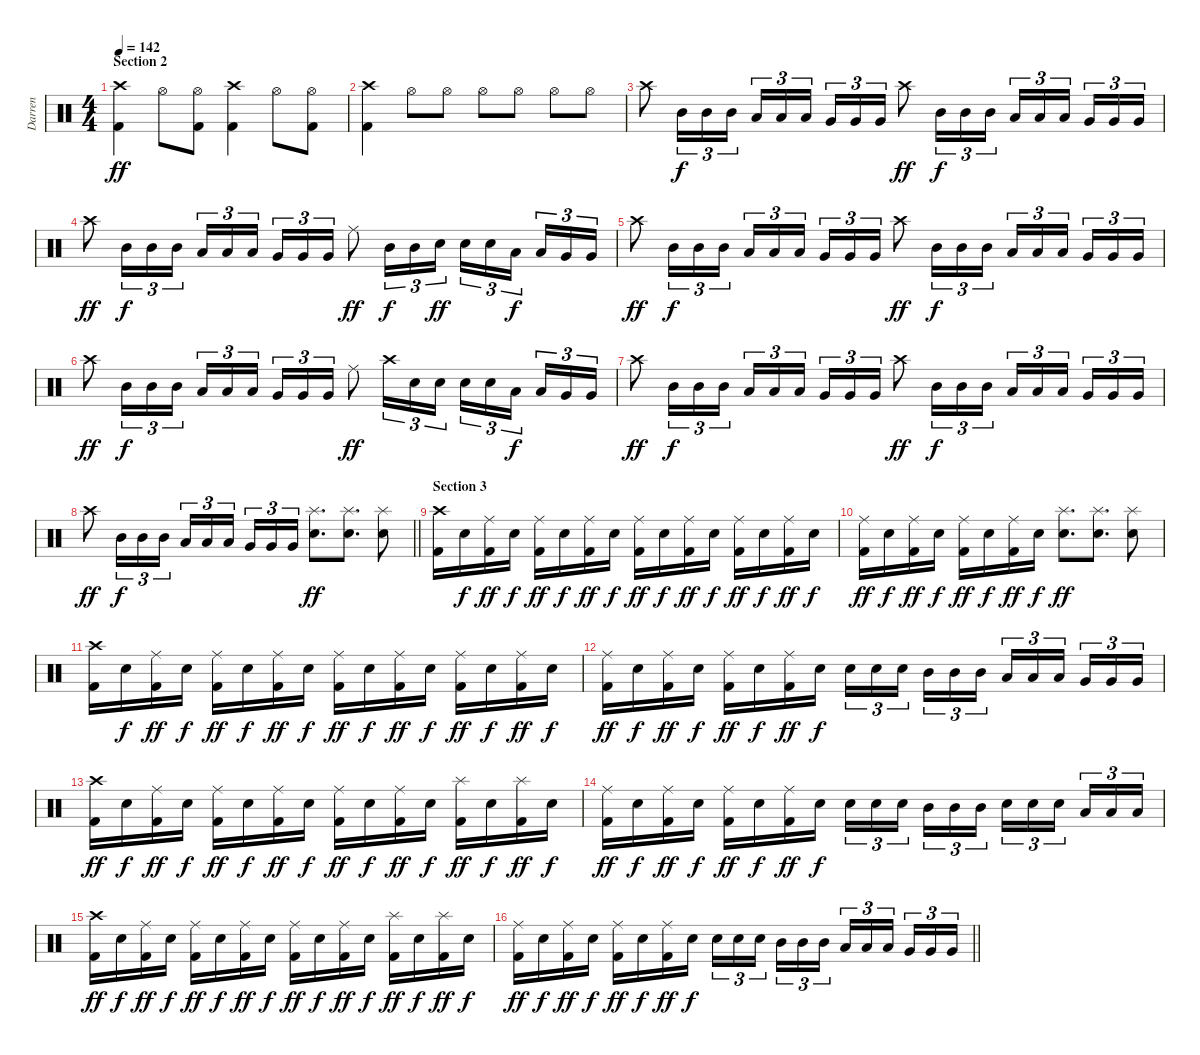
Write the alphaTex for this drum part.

\track ("Darren" "Darren") {instrument percussion}
\staff {score}
\articulation defaults
\ts (4 4)
\section ("" "Section 2")
\tempo 142
\clef neutral
\ks c
("Crash high (hit)" "Kick (hit) 2").4{dy ff} "Hi-Hat (open)".8 ("Hi-Hat (open)" "Kick (hit) 2").8 ("Crash high (hit)" "Kick (hit) 2").4 "Hi-Hat (open)".8 ("Hi-Hat (open)" "Kick (hit) 2").8 |
("Crash high (hit)" "Kick (hit) 2").4 "Hi-Hat (open)".8 "Hi-Hat (open)".8 "Hi-Hat (open)".8 "Hi-Hat (open)".8 "Hi-Hat (open)".8 "Hi-Hat (open)".8 |
"Crash high (hit)".8 "Mid Tom (hit)".16{tu (3 2) dy f} "Mid Tom (hit)".16{tu (3 2)} "Mid Tom (hit)".16{tu (3 2)} "Low Tom (hit)".16{tu (3 2)} "Low Tom (hit)".16{tu (3 2)} "Low Tom (hit)".16{tu (3 2) beam splitsecondary} "Very Low Tom (hit)".16{tu (3 2)} "Very Low Tom (hit)".16{tu (3 2)} "Very Low Tom (hit)".16{tu (3 2)} "Crash high (hit)".8{dy ff} "Mid Tom (hit)".16{tu (3 2) dy f} "Mid Tom (hit)".16{tu (3 2)} "Mid Tom (hit)".16{tu (3 2)} "Low Tom (hit)".16{tu (3 2)} "Low Tom (hit)".16{tu (3 2)} "Low Tom (hit)".16{tu (3 2) beam splitsecondary} "Very Low Tom (hit)".16{tu (3 2)} "Very Low Tom (hit)".16{tu (3 2)} "Very Low Tom (hit)".16{tu (3 2)} |
"Crash high (hit)".8{dy ff} "Mid Tom (hit)".16{tu (3 2) dy f} "Mid Tom (hit)".16{tu (3 2)} "Mid Tom (hit)".16{tu (3 2)} "Low Tom (hit)".16{tu (3 2)} "Low Tom (hit)".16{tu (3 2)} "Low Tom (hit)".16{tu (3 2) beam splitsecondary} "Very Low Tom (hit)".16{tu (3 2)} "Very Low Tom (hit)".16{tu (3 2)} "Very Low Tom (hit)".16{tu (3 2)} "Ride (middle)".8{dy ff} "Mid Tom (hit)".16{tu (3 2) dy f} "Mid Tom (hit)".16{tu (3 2)} "Electric Snare (hit)".16{tu (3 2) dy ff} "Electric Snare (hit)".16{tu (3 2)} "Electric Snare (hit)".16{tu (3 2)} "Low Tom (hit)".16{tu (3 2) dy f beam splitsecondary} "Low Tom (hit)".16{tu (3 2)} "Very Low Tom (hit)".16{tu (3 2)} "Very Low Tom (hit)".16{tu (3 2)} |
"Crash high (hit)".8{dy ff} "Mid Tom (hit)".16{tu (3 2) dy f} "Mid Tom (hit)".16{tu (3 2)} "Mid Tom (hit)".16{tu (3 2)} "Low Tom (hit)".16{tu (3 2)} "Low Tom (hit)".16{tu (3 2)} "Low Tom (hit)".16{tu (3 2) beam splitsecondary} "Very Low Tom (hit)".16{tu (3 2)} "Very Low Tom (hit)".16{tu (3 2)} "Very Low Tom (hit)".16{tu (3 2)} "Crash high (hit)".8{dy ff} "Mid Tom (hit)".16{tu (3 2) dy f} "Mid Tom (hit)".16{tu (3 2)} "Mid Tom (hit)".16{tu (3 2)} "Low Tom (hit)".16{tu (3 2)} "Low Tom (hit)".16{tu (3 2)} "Low Tom (hit)".16{tu (3 2) beam splitsecondary} "Very Low Tom (hit)".16{tu (3 2)} "Very Low Tom (hit)".16{tu (3 2)} "Very Low Tom (hit)".16{tu (3 2)} |
"Crash high (hit)".8{dy ff} "Mid Tom (hit)".16{tu (3 2) dy f} "Mid Tom (hit)".16{tu (3 2)} "Mid Tom (hit)".16{tu (3 2)} "Low Tom (hit)".16{tu (3 2)} "Low Tom (hit)".16{tu (3 2)} "Low Tom (hit)".16{tu (3 2) beam splitsecondary} "Very Low Tom (hit)".16{tu (3 2)} "Very Low Tom (hit)".16{tu (3 2)} "Very Low Tom (hit)".16{tu (3 2)} "Ride (middle)".8{dy ff} "Crash high (hit)".16{tu (3 2)} "Electric Snare (hit)".16{tu (3 2)} "Electric Snare (hit)".16{tu (3 2)} "Electric Snare (hit)".16{tu (3 2)} "Electric Snare (hit)".16{tu (3 2)} "Low Tom (hit)".16{tu (3 2) dy f beam splitsecondary} "Low Tom (hit)".16{tu (3 2)} "Very Low Tom (hit)".16{tu (3 2)} "Very Low Tom (hit)".16{tu (3 2)} |
"Crash high (hit)".8{dy ff} "Mid Tom (hit)".16{tu (3 2) dy f} "Mid Tom (hit)".16{tu (3 2)} "Mid Tom (hit)".16{tu (3 2)} "Low Tom (hit)".16{tu (3 2)} "Low Tom (hit)".16{tu (3 2)} "Low Tom (hit)".16{tu (3 2) beam splitsecondary} "Very Low Tom (hit)".16{tu (3 2)} "Very Low Tom (hit)".16{tu (3 2)} "Very Low Tom (hit)".16{tu (3 2)} "Crash high (hit)".8{dy ff} "Mid Tom (hit)".16{tu (3 2) dy f} "Mid Tom (hit)".16{tu (3 2)} "Mid Tom (hit)".16{tu (3 2)} "Low Tom (hit)".16{tu (3 2)} "Low Tom (hit)".16{tu (3 2)} "Low Tom (hit)".16{tu (3 2) beam splitsecondary} "Very Low Tom (hit)".16{tu (3 2)} "Very Low Tom (hit)".16{tu (3 2)} "Very Low Tom (hit)".16{tu (3 2)} |
\barLineRight lightlight "Crash high (hit)".8{dy ff} "Mid Tom (hit)".16{tu (3 2) dy f} "Mid Tom (hit)".16{tu (3 2)} "Mid Tom (hit)".16{tu (3 2)} "Low Tom (hit)".16{tu (3 2)} "Low Tom (hit)".16{tu (3 2)} "Low Tom (hit)".16{tu (3 2) beam splitsecondary} "Very Low Tom (hit)".16{tu (3 2)} "Very Low Tom (hit)".16{tu (3 2)} "Very Low Tom (hit)".16{tu (3 2)}
("Splash (hit)" "Electric Snare (hit)").8{d dy ff} ("Splash (hit)" "Electric Snare (hit)").8{d} ("Splash (hit)" "Electric Snare (hit)").8 |
\section ("" "Section 3")
("Crash high (hit)" "Kick (hit) 2").16 "Electric Snare (hit)".16{dy f} ("Ride (middle)" "Kick (hit) 2").16{dy ff} "Electric Snare (hit)".16{dy f} ("Ride (middle)" "Kick (hit) 2").16{dy ff} "Electric Snare (hit)".16{dy f} ("Ride (middle)" "Kick (hit) 2").16{dy ff} "Electric Snare (hit)".16{dy f} ("Ride (middle)" "Kick (hit) 2").16{dy ff} "Electric Snare (hit)".16{dy f} ("Ride (middle)" "Kick (hit) 2").16{dy ff} "Electric Snare (hit)".16{dy f} ("Ride (middle)" "Kick (hit) 2").16{dy ff} "Electric Snare (hit)".16{dy f} ("Ride (middle)" "Kick (hit) 2").16{dy ff} "Electric Snare (hit)".16{dy f} |
("Ride (middle)" "Kick (hit) 2").16{dy ff} "Electric Snare (hit)".16{dy f} ("Ride (middle)" "Kick (hit) 2").16{dy ff} "Electric Snare (hit)".16{dy f} ("Ride (middle)" "Kick (hit) 2").16{dy ff} "Electric Snare (hit)".16{dy f} ("Ride (middle)" "Kick (hit) 2").16{dy ff} "Electric Snare (hit)".16{dy f} ("Splash (hit)" "Electric Snare (hit)").8{d dy ff} ("Splash (hit)" "Electric Snare (hit)").8{d} ("Splash (hit)" "Electric Snare (hit)").8 |
("Crash high (hit)" "Kick (hit) 2").16 "Electric Snare (hit)".16{dy f} ("Ride (middle)" "Kick (hit) 2").16{dy ff} "Electric Snare (hit)".16{dy f} ("Ride (middle)" "Kick (hit) 2").16{dy ff} "Electric Snare (hit)".16{dy f} ("Ride (middle)" "Kick (hit) 2").16{dy ff} "Electric Snare (hit)".16{dy f} ("Ride (middle)" "Kick (hit) 2").16{dy ff} "Electric Snare (hit)".16{dy f} ("Ride (middle)" "Kick (hit) 2").16{dy ff} "Electric Snare (hit)".16{dy f} ("Ride (middle)" "Kick (hit) 2").16{dy ff} "Electric Snare (hit)".16{dy f} ("Ride (middle)" "Kick (hit) 2").16{dy ff} "Electric Snare (hit)".16{dy f} |
("Ride (middle)" "Kick (hit) 2").16{dy ff} "Electric Snare (hit)".16{dy f} ("Ride (middle)" "Kick (hit) 2").16{dy ff} "Electric Snare (hit)".16{dy f} ("Ride (middle)" "Kick (hit) 2").16{dy ff} "Electric Snare (hit)".16{dy f} ("Ride (middle)" "Kick (hit) 2").16{dy ff} "Electric Snare (hit)".16{dy f} "Electric Snare (hit)".16{tu (3 2)} "Electric Snare (hit)".16{tu (3 2)} "Electric Snare (hit)".16{tu (3 2) beam splitsecondary} "Mid Tom (hit)".16{tu (3 2)} "Mid Tom (hit)".16{tu (3 2)} "Mid Tom (hit)".16{tu (3 2)} "Low Tom (hit)".16{tu (3 2)} "Low Tom (hit)".16{tu (3 2)} "Low Tom (hit)".16{tu (3 2) beam splitsecondary} "Very Low Tom (hit)".16{tu (3 2)} "Very Low Tom (hit)".16{tu (3 2)} "Very Low Tom (hit)".16{tu (3 2)} |
("Crash high (hit)" "Kick (hit) 2").16{dy ff} "Electric Snare (hit)".16{dy f} ("Ride (middle)" "Kick (hit) 2").16{dy ff} "Electric Snare (hit)".16{dy f} ("Ride (middle)" "Kick (hit) 2").16{dy ff} "Electric Snare (hit)".16{dy f} ("Ride (middle)" "Kick (hit) 2").16{dy ff} "Electric Snare (hit)".16{dy f} ("Ride (middle)" "Kick (hit) 2").16{dy ff} "Electric Snare (hit)".16{dy f} ("Ride (middle)" "Kick (hit) 2").16{dy ff} "Electric Snare (hit)".16{dy f} ("Splash (hit)" "Kick (hit) 2").16{dy ff} "Electric Snare (hit)".16{dy f} ("Splash (hit)" "Kick (hit) 2").16{dy ff} "Electric Snare (hit)".16{dy f} |
("Ride (middle)" "Kick (hit) 2").16{dy ff} "Electric Snare (hit)".16{dy f} ("Ride (middle)" "Kick (hit) 2").16{dy ff} "Electric Snare (hit)".16{dy f} ("Ride (middle)" "Kick (hit) 2").16{dy ff} "Electric Snare (hit)".16{dy f} ("Ride (middle)" "Kick (hit) 2").16{dy ff} "Electric Snare (hit)".16{dy f} "Electric Snare (hit)".16{tu (3 2)} "Electric Snare (hit)".16{tu (3 2)} "Electric Snare (hit)".16{tu (3 2) beam splitsecondary} "Mid Tom (hit)".16{tu (3 2)} "Mid Tom (hit)".16{tu (3 2)} "Mid Tom (hit)".16{tu (3 2)} "Electric Snare (hit)".16{tu (3 2)} "Electric Snare (hit)".16{tu (3 2)} "Electric Snare (hit)".16{tu (3 2) beam splitsecondary} "Low Tom (hit)".16{tu (3 2)} "Low Tom (hit)".16{tu (3 2)} "Low Tom (hit)".16{tu (3 2)} |
("Crash high (hit)" "Kick (hit) 2").16{dy ff} "Electric Snare (hit)".16{dy f} ("Ride (middle)" "Kick (hit) 2").16{dy ff} "Electric Snare (hit)".16{dy f} ("Ride (middle)" "Kick (hit) 2").16{dy ff} "Electric Snare (hit)".16{dy f} ("Ride (middle)" "Kick (hit) 2").16{dy ff} "Electric Snare (hit)".16{dy f} ("Ride (middle)" "Kick (hit) 2").16{dy ff} "Electric Snare (hit)".16{dy f} ("Ride (middle)" "Kick (hit) 2").16{dy ff} "Electric Snare (hit)".16{dy f} ("Splash (hit)" "Kick (hit) 2").16{dy ff} "Electric Snare (hit)".16{dy f} ("Splash (hit)" "Kick (hit) 2").16{dy ff} "Electric Snare (hit)".16{dy f} |
\barLineRight lightlight
("Ride (middle)" "Kick (hit) 2").16{dy ff} "Electric Snare (hit)".16{dy f} ("Ride (middle)" "Kick (hit) 2").16{dy ff} "Electric Snare (hit)".16{dy f} ("Ride (middle)" "Kick (hit) 2").16{dy ff} "Electric Snare (hit)".16{dy f} ("Ride (middle)" "Kick (hit) 2").16{dy ff} "Electric Snare (hit)".16{dy f} "Electric Snare (hit)".16{tu (3 2)} "Electric Snare (hit)".16{tu (3 2)} "Electric Snare (hit)".16{tu (3 2) beam splitsecondary} "Mid Tom (hit)".16{tu (3 2)} "Mid Tom (hit)".16{tu (3 2)} "Mid Tom (hit)".16{tu (3 2)} "Low Tom (hit)".16{tu (3 2)} "Low Tom (hit)".16{tu (3 2)} "Low Tom (hit)".16{tu (3 2) beam splitsecondary} "Very Low Tom (hit)".16{tu (3 2)} "Very Low Tom (hit)".16{tu (3 2)} "Very Low Tom (hit)".16{tu (3 2)}
